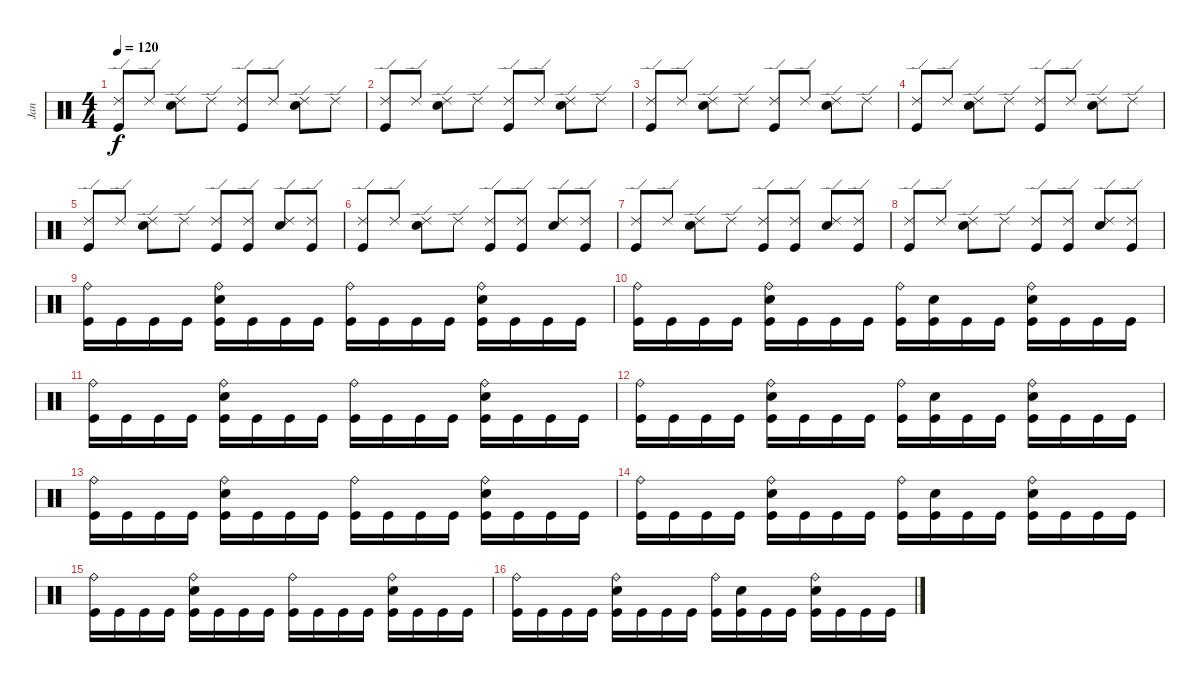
\track ("Jan" "Jan") {instrument percussion}
\staff {score}
\articulation defaults
\ts (4 4)
\tempo 120
\clef neutral
\ks c
("Ride (edge) 2" "Kick (hit)").8{dy f} "Ride (edge) 2".8 ("Ride (edge) 2" "Snare (hit) 2").8 "Ride (edge) 2".8 ("Ride (edge) 2" "Kick (hit)").8 "Ride (edge) 2".8 ("Ride (edge) 2" "Snare (hit) 2").8 "Ride (edge) 2".8 |
("Ride (edge) 2" "Kick (hit)").8 "Ride (edge) 2".8 ("Ride (edge) 2" "Snare (hit) 2").8 "Ride (edge) 2".8 ("Ride (edge) 2" "Kick (hit)").8 "Ride (edge) 2".8 ("Ride (edge) 2" "Snare (hit) 2").8 "Ride (edge) 2".8 |
("Ride (edge) 2" "Kick (hit)").8 "Ride (edge) 2".8 ("Ride (edge) 2" "Snare (hit) 2").8 "Ride (edge) 2".8 ("Ride (edge) 2" "Kick (hit)").8 "Ride (edge) 2".8 ("Ride (edge) 2" "Snare (hit) 2").8 "Ride (edge) 2".8 |
("Ride (edge) 2" "Kick (hit)").8 "Ride (edge) 2".8 ("Ride (edge) 2" "Snare (hit) 2").8 "Ride (edge) 2".8 ("Ride (edge) 2" "Kick (hit)").8 "Ride (edge) 2".8 ("Ride (edge) 2" "Snare (hit) 2").8 "Ride (edge) 2".8 |
("Ride (edge) 2" "Kick (hit)").8 "Ride (edge) 2".8 ("Ride (edge) 2" "Snare (hit) 2").8 "Ride (edge) 2".8 ("Ride (edge) 2" "Kick (hit)").8 ("Ride (edge) 2" "Kick (hit)").8 ("Ride (edge) 2" "Snare (hit) 2").8 ("Ride (edge) 2" "Kick (hit)").8 |
("Ride (edge) 2" "Kick (hit)").8 "Ride (edge) 2".8 ("Ride (edge) 2" "Snare (hit) 2").8 "Ride (edge) 2".8 ("Ride (edge) 2" "Kick (hit)").8 ("Ride (edge) 2" "Kick (hit)").8 ("Ride (edge) 2" "Snare (hit) 2").8 ("Ride (edge) 2" "Kick (hit)").8 |
("Ride (edge) 2" "Kick (hit)").8 "Ride (edge) 2".8 ("Ride (edge) 2" "Snare (hit) 2").8 "Ride (edge) 2".8 ("Ride (edge) 2" "Kick (hit)").8 ("Ride (edge) 2" "Kick (hit)").8 ("Ride (edge) 2" "Snare (hit) 2").8 ("Ride (edge) 2" "Kick (hit)").8 |
("Ride (edge) 2" "Kick (hit)").8 "Ride (edge) 2".8 ("Ride (edge) 2" "Snare (hit) 2").8 "Ride (edge) 2".8 ("Ride (edge) 2" "Kick (hit)").8 ("Ride (edge) 2" "Kick (hit)").8 ("Ride (edge) 2" "Snare (hit) 2").8 ("Ride (edge) 2" "Kick (hit)").8 |
("Ride (bell)" "Kick (hit)").16 "Kick (hit)".16 "Kick (hit)".16 "Kick (hit)".16 ("Ride (bell)" "Snare (hit) 2" "Kick (hit)").16 "Kick (hit)".16 "Kick (hit)".16 "Kick (hit)".16 ("Ride (bell)" "Kick (hit)").16 "Kick (hit)".16 "Kick (hit)".16 "Kick (hit)".16 ("Ride (bell)" "Snare (hit) 2" "Kick (hit)").16 "Kick (hit)".16 "Kick (hit)".16 "Kick (hit)".16 |
("Ride (bell)" "Kick (hit)").16 "Kick (hit)".16 "Kick (hit)".16 "Kick (hit)".16 ("Ride (bell)" "Snare (hit) 2" "Kick (hit)").16 "Kick (hit)".16 "Kick (hit)".16 "Kick (hit)".16 ("Ride (bell)" "Kick (hit)").16 ("Snare (hit) 2" "Kick (hit)").16 "Kick (hit)".16 "Kick (hit)".16 ("Ride (bell)" "Snare (hit) 2" "Kick (hit)").16 "Kick (hit)".16 "Kick (hit)".16 "Kick (hit)".16 |
("Ride (bell)" "Kick (hit)").16 "Kick (hit)".16 "Kick (hit)".16 "Kick (hit)".16 ("Ride (bell)" "Snare (hit) 2" "Kick (hit)").16 "Kick (hit)".16 "Kick (hit)".16 "Kick (hit)".16 ("Ride (bell)" "Kick (hit)").16 "Kick (hit)".16 "Kick (hit)".16 "Kick (hit)".16 ("Ride (bell)" "Snare (hit) 2" "Kick (hit)").16 "Kick (hit)".16 "Kick (hit)".16 "Kick (hit)".16 |
("Ride (bell)" "Kick (hit)").16 "Kick (hit)".16 "Kick (hit)".16 "Kick (hit)".16 ("Ride (bell)" "Snare (hit) 2" "Kick (hit)").16 "Kick (hit)".16 "Kick (hit)".16 "Kick (hit)".16 ("Ride (bell)" "Kick (hit)").16 ("Snare (hit) 2" "Kick (hit)").16 "Kick (hit)".16 "Kick (hit)".16 ("Ride (bell)" "Snare (hit) 2" "Kick (hit)").16 "Kick (hit)".16 "Kick (hit)".16 "Kick (hit)".16 |
("Ride (bell)" "Kick (hit)").16 "Kick (hit)".16 "Kick (hit)".16 "Kick (hit)".16 ("Ride (bell)" "Snare (hit) 2" "Kick (hit)").16 "Kick (hit)".16 "Kick (hit)".16 "Kick (hit)".16 ("Ride (bell)" "Kick (hit)").16 "Kick (hit)".16 "Kick (hit)".16 "Kick (hit)".16 ("Ride (bell)" "Snare (hit) 2" "Kick (hit)").16 "Kick (hit)".16 "Kick (hit)".16 "Kick (hit)".16 |
("Ride (bell)" "Kick (hit)").16 "Kick (hit)".16 "Kick (hit)".16 "Kick (hit)".16 ("Ride (bell)" "Snare (hit) 2" "Kick (hit)").16 "Kick (hit)".16 "Kick (hit)".16 "Kick (hit)".16 ("Ride (bell)" "Kick (hit)").16 ("Snare (hit) 2" "Kick (hit)").16 "Kick (hit)".16 "Kick (hit)".16 ("Ride (bell)" "Snare (hit) 2" "Kick (hit)").16 "Kick (hit)".16 "Kick (hit)".16 "Kick (hit)".16 |
("Ride (bell)" "Kick (hit)").16 "Kick (hit)".16 "Kick (hit)".16 "Kick (hit)".16 ("Ride (bell)" "Snare (hit) 2" "Kick (hit)").16 "Kick (hit)".16 "Kick (hit)".16 "Kick (hit)".16 ("Ride (bell)" "Kick (hit)").16 "Kick (hit)".16 "Kick (hit)".16 "Kick (hit)".16 ("Ride (bell)" "Snare (hit) 2" "Kick (hit)").16 "Kick (hit)".16 "Kick (hit)".16 "Kick (hit)".16 |
("Ride (bell)" "Kick (hit)").16 "Kick (hit)".16 "Kick (hit)".16 "Kick (hit)".16 ("Ride (bell)" "Snare (hit) 2" "Kick (hit)").16 "Kick (hit)".16 "Kick (hit)".16 "Kick (hit)".16 ("Ride (bell)" "Kick (hit)").16 ("Snare (hit) 2" "Kick (hit)").16 "Kick (hit)".16 "Kick (hit)".16 ("Ride (bell)" "Snare (hit) 2" "Kick (hit)").16 "Kick (hit)".16 "Kick (hit)".16 "Kick (hit)".16
